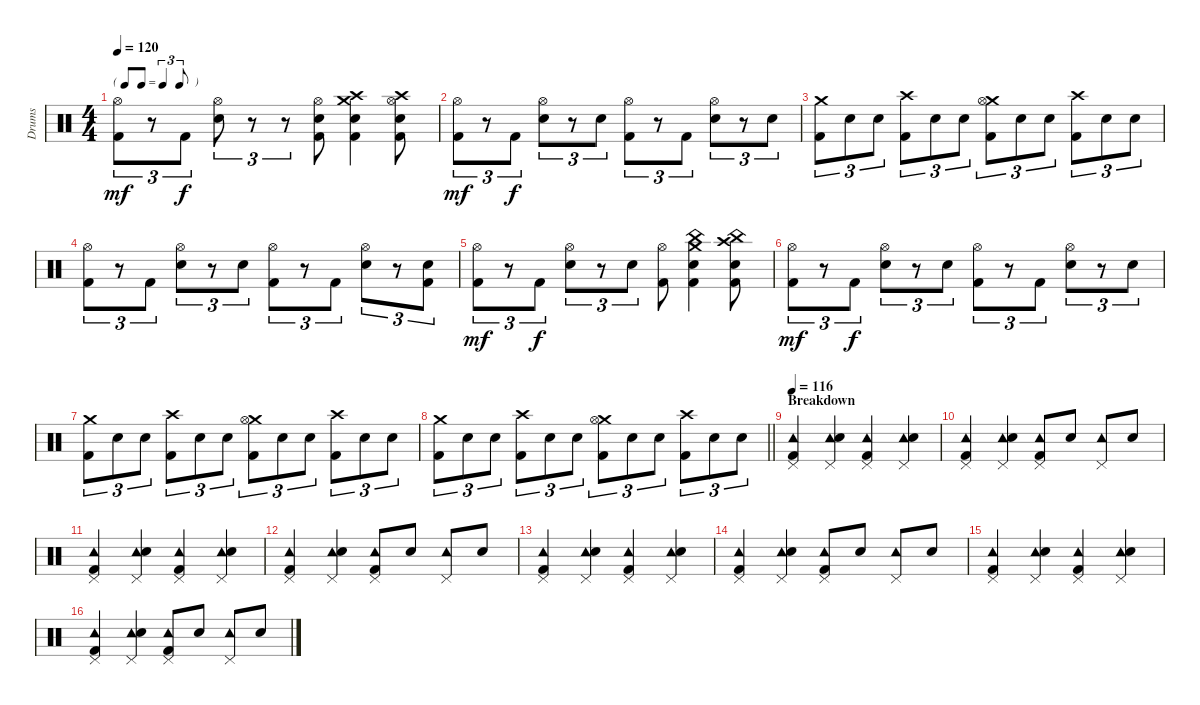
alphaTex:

\track ("Drums" "Drums") {instrument percussion}
\staff {score}
\articulation defaults
\ts (4 4)
\tf triplet8th
\tempo 120
\clef neutral
\ks c
("Hi-Hat (open)" "Kick (hit) 2").8{tu (3 2) dy mf} r.8{tu (3 2)} "Kick (hit) 2".8{tu (3 2) dy f} ("Hi-Hat (open)" "Snare (hit) 2").8{tu (3 2)} r.8{tu (3 2)} r.8{tu (3 2)} ("Hi-Hat (open)" "Snare (hit) 2" "Kick (hit) 2").8 ("Crash medium (hit)" "Crash high (hit)" "Snare (hit) 2" "Kick (hit) 2").4 ("Crash high (hit)" "Hi-Hat (open)" "Snare (hit) 2" "Kick (hit) 2").8 |
("Hi-Hat (open)" "Kick (hit) 2").8{tu (3 2) dy mf} r.8{tu (3 2)} "Kick (hit) 2".8{tu (3 2) dy f} ("Hi-Hat (open)" "Snare (hit) 2").8{tu (3 2)} r.8{tu (3 2)} "Snare (hit) 2".8{tu (3 2)} ("Hi-Hat (open)" "Kick (hit) 2").8{tu (3 2)} r.8{tu (3 2)} "Kick (hit) 2".8{tu (3 2)} ("Hi-Hat (open)" "Snare (hit) 2").8{tu (3 2)} r.8{tu (3 2)} "Snare (hit) 2".8{tu (3 2)} |
("Crash medium (hit)" "Kick (hit) 2").8{tu (3 2)} "Snare (hit) 2".8{tu (3 2)} "Snare (hit) 2".8{tu (3 2)} ("Crash high (hit)" "Kick (hit) 2").8{tu (3 2)} "Snare (hit) 2".8{tu (3 2)} "Snare (hit) 2".8{tu (3 2)} ("Crash medium (hit)" "Hi-Hat (open)" "Kick (hit) 2").8{tu (3 2)} "Snare (hit) 2".8{tu (3 2)} "Snare (hit) 2".8{tu (3 2)} ("Crash high (hit)" "Kick (hit) 2").8{tu (3 2)} "Snare (hit) 2".8{tu (3 2)} "Snare (hit) 2".8{tu (3 2)} |
("Hi-Hat (open)" "Kick (hit) 2").8{tu (3 2)} r.8{tu (3 2)} "Kick (hit) 2".8{tu (3 2)} ("Hi-Hat (open)" "Snare (hit) 2").8{tu (3 2)} r.8{tu (3 2)} "Snare (hit) 2".8{tu (3 2)} ("Hi-Hat (open)" "Kick (hit) 2").8{tu (3 2)} r.8{tu (3 2)} "Kick (hit) 2".8{tu (3 2)} ("Hi-Hat (open)" "Snare (hit) 2").8{tu (3 2)} r.8{tu (3 2)} ("Snare (hit) 2" "Kick (hit) 2").8{tu (3 2)} |
("Hi-Hat (open)" "Kick (hit) 2").8{tu (3 2) dy mf} r.8{tu (3 2)} "Kick (hit) 2".8{tu (3 2) dy f} ("Hi-Hat (open)" "Snare (hit) 2").8{tu (3 2)} r.8{tu (3 2)} "Snare (hit) 2".8{tu (3 2)} ("Hi-Hat (open)" "Kick (hit) 2").8 ("China (hit)" "Crash medium (hit)" "Snare (hit) 2" "Kick (hit) 2").4 ("China (hit)" "Crash high (hit)" "Snare (hit) 2" "Kick (hit) 2").8 |
("Hi-Hat (open)" "Kick (hit) 2").8{tu (3 2) dy mf} r.8{tu (3 2)} "Kick (hit) 2".8{tu (3 2) dy f} ("Hi-Hat (open)" "Snare (hit) 2").8{tu (3 2)} r.8{tu (3 2)} "Snare (hit) 2".8{tu (3 2)} ("Hi-Hat (open)" "Kick (hit) 2").8{tu (3 2)} r.8{tu (3 2)} "Kick (hit) 2".8{tu (3 2)} ("Hi-Hat (open)" "Snare (hit) 2").8{tu (3 2)} r.8{tu (3 2)} "Snare (hit) 2".8{tu (3 2)} |
("Crash medium (hit)" "Kick (hit) 2").8{tu (3 2)} "Snare (hit) 2".8{tu (3 2)} "Snare (hit) 2".8{tu (3 2)} ("Crash high (hit)" "Kick (hit) 2").8{tu (3 2)} "Snare (hit) 2".8{tu (3 2)} "Snare (hit) 2".8{tu (3 2)} ("Crash medium (hit)" "Hi-Hat (open)" "Kick (hit) 2").8{tu (3 2)} "Snare (hit) 2".8{tu (3 2)} "Snare (hit) 2".8{tu (3 2)} ("Crash high (hit)" "Kick (hit) 2").8{tu (3 2)} "Snare (hit) 2".8{tu (3 2)} "Snare (hit) 2".8{tu (3 2)} |
\barLineRight lightlight
("Crash medium (hit)" "Kick (hit) 2").8{tu (3 2)} "Snare (hit) 2".8{tu (3 2)} "Snare (hit) 2".8{tu (3 2)} ("Crash high (hit)" "Kick (hit) 2").8{tu (3 2)} "Snare (hit) 2".8{tu (3 2)} "Snare (hit) 2".8{tu (3 2)} ("Crash medium (hit)" "Hi-Hat (open)" "Kick (hit) 2").8{tu (3 2)} "Snare (hit) 2".8{tu (3 2)} "Snare (hit) 2".8{tu (3 2)} ("Crash high (hit)" "Kick (hit) 2").8{tu (3 2)} "Snare (hit) 2".8{tu (3 2)} "Snare (hit) 2".8{tu (3 2)} |
\section ("" "Breakdown")
\tempo 116
("Tambourine (hit)" "Pedal Hi-Hat (hit)" "Kick (hit) 2").4 ("Tambourine (hit)" "Pedal Hi-Hat (hit)" "Snare (hit) 2").4 ("Tambourine (hit)" "Pedal Hi-Hat (hit)" "Kick (hit) 2").4 ("Tambourine (hit)" "Pedal Hi-Hat (hit)" "Snare (hit) 2").4 |
("Tambourine (hit)" "Pedal Hi-Hat (hit)" "Kick (hit) 2").4 ("Tambourine (hit)" "Pedal Hi-Hat (hit)" "Snare (hit) 2").4 ("Tambourine (hit)" "Pedal Hi-Hat (hit)" "Kick (hit) 2").8 "Snare (hit) 2".8 ("Tambourine (hit)" "Pedal Hi-Hat (hit)").8 "Snare (hit) 2".8 |
("Tambourine (hit)" "Pedal Hi-Hat (hit)" "Kick (hit) 2").4 ("Tambourine (hit)" "Pedal Hi-Hat (hit)" "Snare (hit) 2").4 ("Tambourine (hit)" "Pedal Hi-Hat (hit)" "Kick (hit) 2").4 ("Tambourine (hit)" "Pedal Hi-Hat (hit)" "Snare (hit) 2").4 |
("Tambourine (hit)" "Pedal Hi-Hat (hit)" "Kick (hit) 2").4 ("Tambourine (hit)" "Pedal Hi-Hat (hit)" "Snare (hit) 2").4 ("Tambourine (hit)" "Pedal Hi-Hat (hit)" "Kick (hit) 2").8 "Snare (hit) 2".8 ("Tambourine (hit)" "Pedal Hi-Hat (hit)").8 "Snare (hit) 2".8 |
("Tambourine (hit)" "Pedal Hi-Hat (hit)" "Kick (hit) 2").4 ("Tambourine (hit)" "Pedal Hi-Hat (hit)" "Snare (hit) 2").4 ("Tambourine (hit)" "Pedal Hi-Hat (hit)" "Kick (hit) 2").4 ("Tambourine (hit)" "Pedal Hi-Hat (hit)" "Snare (hit) 2").4 |
("Tambourine (hit)" "Pedal Hi-Hat (hit)" "Kick (hit) 2").4 ("Tambourine (hit)" "Pedal Hi-Hat (hit)" "Snare (hit) 2").4 ("Tambourine (hit)" "Pedal Hi-Hat (hit)" "Kick (hit) 2").8 "Snare (hit) 2".8 ("Tambourine (hit)" "Pedal Hi-Hat (hit)").8 "Snare (hit) 2".8 |
("Tambourine (hit)" "Pedal Hi-Hat (hit)" "Kick (hit) 2").4 ("Tambourine (hit)" "Pedal Hi-Hat (hit)" "Snare (hit) 2").4 ("Tambourine (hit)" "Pedal Hi-Hat (hit)" "Kick (hit) 2").4 ("Tambourine (hit)" "Pedal Hi-Hat (hit)" "Snare (hit) 2").4 |
("Tambourine (hit)" "Pedal Hi-Hat (hit)" "Kick (hit) 2").4{volume 7} ("Tambourine (hit)" "Pedal Hi-Hat (hit)" "Snare (hit) 2").4 ("Tambourine (hit)" "Pedal Hi-Hat (hit)" "Kick (hit) 2").8 "Snare (hit) 2".8 ("Tambourine (hit)" "Pedal Hi-Hat (hit)").8 "Snare (hit) 2".8
